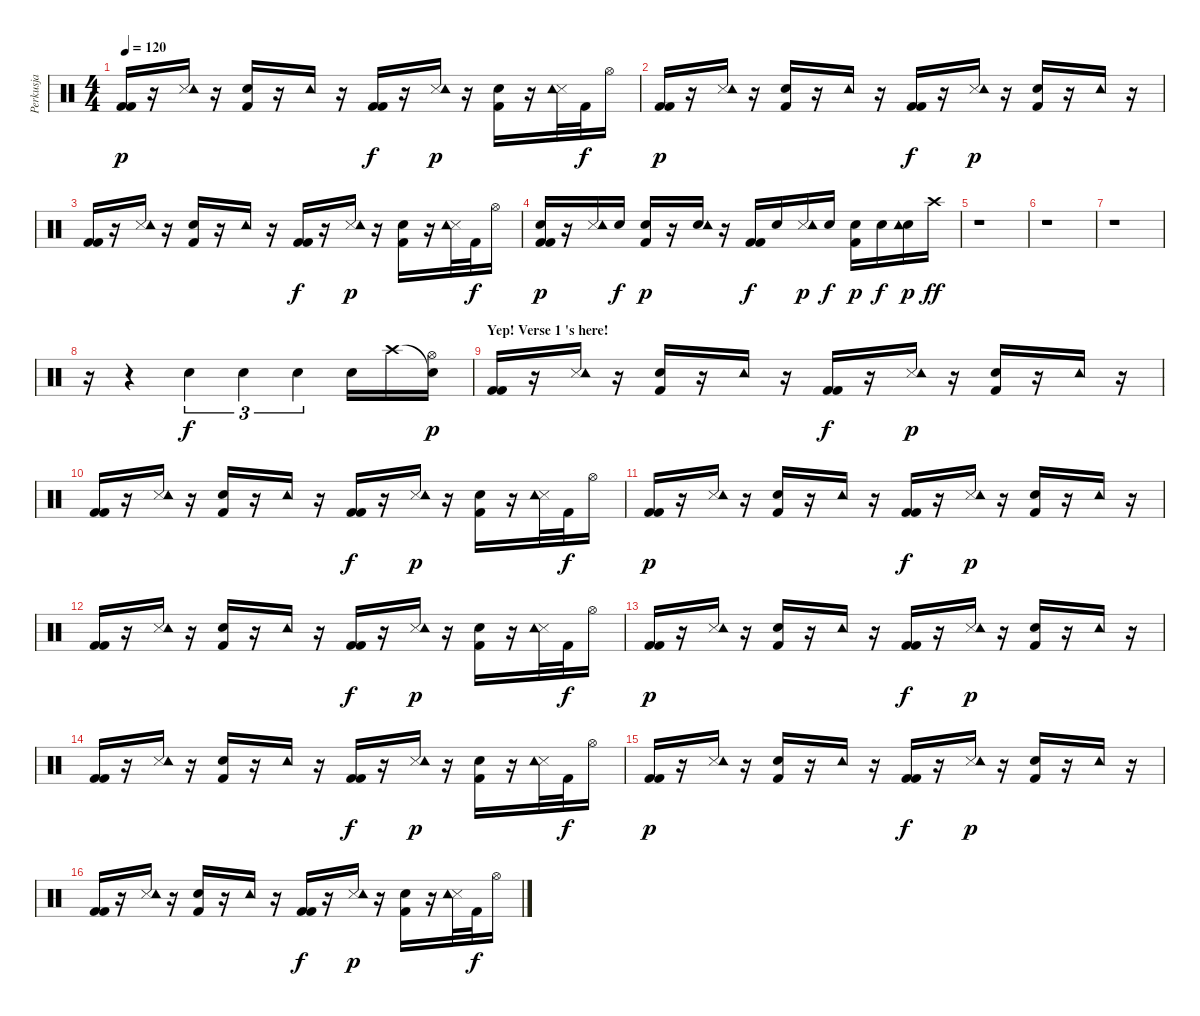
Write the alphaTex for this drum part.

\track ("Perkusja" "Perkusja") {instrument percussion}
\staff {score}
\articulation defaults
\ts (4 4)
\tempo 120
\clef neutral
\ks c
("Kick (hit) 2" "Kick (hit) 2").16{dy p} r.16 ("Snare (side stick) 3" "Tambourine (hit)").16 r.16 ("Electric Snare (hit)" "Kick (hit) 2").16 r.16 "Tambourine (hit)".16 r.16 ("Kick (hit) 2" "Kick (hit) 2").16{dy f} r.16 ("Snare (side stick) 3" "Tambourine (hit)").16{dy p} r.16 ("Electric Snare (hit)" "Kick (hit) 2").16 r.16 ("Snare (side stick) 3" "Tambourine (hit)").32 "Kick (hit) 2".32{dy f} "Hi-Hat (open)".16 |
("Kick (hit) 2" "Kick (hit) 2").16{dy p} r.16 ("Snare (side stick) 3" "Tambourine (hit)").16 r.16 ("Electric Snare (hit)" "Kick (hit) 2").16 r.16 "Tambourine (hit)".16 r.16 ("Kick (hit) 2" "Kick (hit) 2").16{dy f} r.16 ("Snare (side stick) 3" "Tambourine (hit)").16{dy p} r.16 ("Electric Snare (hit)" "Kick (hit) 2").16 r.16 "Tambourine (hit)".16 r.16 |
("Kick (hit) 2" "Kick (hit) 2").16 r.16 ("Snare (side stick) 3" "Tambourine (hit)").16 r.16 ("Electric Snare (hit)" "Kick (hit) 2").16 r.16 "Tambourine (hit)".16 r.16 ("Kick (hit) 2" "Kick (hit) 2").16{dy f} r.16 ("Snare (side stick) 3" "Tambourine (hit)").16{dy p} r.16 ("Electric Snare (hit)" "Kick (hit) 2").16 r.16 ("Snare (side stick) 3" "Tambourine (hit)").32 "Kick (hit) 2".32{dy f} "Hi-Hat (open)".16 |
("Kick (hit) 2" "Electric Snare (hit)" "Kick (hit) 2").16{dy p} r.16 ("Snare (side stick) 3" "Tambourine (hit)").16 "Electric Snare (hit)".16{dy f} ("Electric Snare (hit)" "Kick (hit) 2").16{dy p} r.16 ("Electric Snare (hit)" "Tambourine (hit)").16 r.16 ("Kick (hit) 2" "Kick (hit) 2").16{dy f} "Electric Snare (hit)".16 ("Snare (side stick) 3" "Tambourine (hit)").16{dy p} "Electric Snare (hit)".16{dy f} ("Electric Snare (hit)" "Kick (hit) 2").16{dy p} "Electric Snare (hit)".16{dy f} ("Electric Snare (hit)" "Tambourine (hit)").16{dy p} "Crash high (hit)".16{dy ff} |
r.1 |
r.1 |
r.1 |
r.16 r.4 "Electric Snare (hit)".4{tu (3 2) dy f} "Electric Snare (hit)".4{tu (3 2)} "Electric Snare (hit)".4{tu (3 2)} "Electric Snare (hit)".16 "Crash high (hit)".16 ("Snare (hit)"{t} "Hi-Hat (open)").16{dy p} |
\section ("" "Yep! Verse 1 's here!")
("Kick (hit) 2" "Kick (hit) 2").16 r.16 ("Snare (side stick) 3" "Tambourine (hit)").16 r.16 ("Electric Snare (hit)" "Kick (hit) 2").16 r.16 "Tambourine (hit)".16 r.16 ("Kick (hit) 2" "Kick (hit) 2").16{dy f} r.16 ("Snare (side stick) 3" "Tambourine (hit)").16{dy p} r.16 ("Electric Snare (hit)" "Kick (hit) 2").16 r.16 "Tambourine (hit)".16 r.16 |
("Kick (hit) 2" "Kick (hit) 2").16 r.16 ("Snare (side stick) 3" "Tambourine (hit)").16 r.16 ("Electric Snare (hit)" "Kick (hit) 2").16 r.16 "Tambourine (hit)".16 r.16 ("Kick (hit) 2" "Kick (hit) 2").16{dy f} r.16 ("Snare (side stick) 3" "Tambourine (hit)").16{dy p} r.16 ("Electric Snare (hit)" "Kick (hit) 2").16 r.16 ("Snare (side stick) 3" "Tambourine (hit)").32 "Kick (hit) 2".32{dy f} "Hi-Hat (open)".16 |
("Kick (hit) 2" "Kick (hit) 2").16{dy p} r.16 ("Snare (side stick) 3" "Tambourine (hit)").16 r.16 ("Electric Snare (hit)" "Kick (hit) 2").16 r.16 "Tambourine (hit)".16 r.16 ("Kick (hit) 2" "Kick (hit) 2").16{dy f} r.16 ("Snare (side stick) 3" "Tambourine (hit)").16{dy p} r.16 ("Electric Snare (hit)" "Kick (hit) 2").16 r.16 "Tambourine (hit)".16 r.16 |
("Kick (hit) 2" "Kick (hit) 2").16 r.16 ("Snare (side stick) 3" "Tambourine (hit)").16 r.16 ("Electric Snare (hit)" "Kick (hit) 2").16 r.16 "Tambourine (hit)".16 r.16 ("Kick (hit) 2" "Kick (hit) 2").16{dy f} r.16 ("Snare (side stick) 3" "Tambourine (hit)").16{dy p} r.16 ("Electric Snare (hit)" "Kick (hit) 2").16 r.16 ("Snare (side stick) 3" "Tambourine (hit)").32 "Kick (hit) 2".32{dy f} "Hi-Hat (open)".16 |
("Kick (hit) 2" "Kick (hit) 2").16{dy p} r.16 ("Snare (side stick) 3" "Tambourine (hit)").16 r.16 ("Electric Snare (hit)" "Kick (hit) 2").16 r.16 "Tambourine (hit)".16 r.16 ("Kick (hit) 2" "Kick (hit) 2").16{dy f} r.16 ("Snare (side stick) 3" "Tambourine (hit)").16{dy p} r.16 ("Electric Snare (hit)" "Kick (hit) 2").16 r.16 "Tambourine (hit)".16 r.16 |
("Kick (hit) 2" "Kick (hit) 2").16 r.16 ("Snare (side stick) 3" "Tambourine (hit)").16 r.16 ("Electric Snare (hit)" "Kick (hit) 2").16 r.16 "Tambourine (hit)".16 r.16 ("Kick (hit) 2" "Kick (hit) 2").16{dy f} r.16 ("Snare (side stick) 3" "Tambourine (hit)").16{dy p} r.16 ("Electric Snare (hit)" "Kick (hit) 2").16 r.16 ("Snare (side stick) 3" "Tambourine (hit)").32 "Kick (hit) 2".32{dy f} "Hi-Hat (open)".16 |
("Kick (hit) 2" "Kick (hit) 2").16{dy p} r.16 ("Snare (side stick) 3" "Tambourine (hit)").16 r.16 ("Electric Snare (hit)" "Kick (hit) 2").16 r.16 "Tambourine (hit)".16 r.16 ("Kick (hit) 2" "Kick (hit) 2").16{dy f} r.16 ("Snare (side stick) 3" "Tambourine (hit)").16{dy p} r.16 ("Electric Snare (hit)" "Kick (hit) 2").16 r.16 "Tambourine (hit)".16 r.16 |
("Kick (hit) 2" "Kick (hit) 2").16 r.16 ("Snare (side stick) 3" "Tambourine (hit)").16 r.16 ("Electric Snare (hit)" "Kick (hit) 2").16 r.16 "Tambourine (hit)".16 r.16 ("Kick (hit) 2" "Kick (hit) 2").16{dy f} r.16 ("Snare (side stick) 3" "Tambourine (hit)").16{dy p} r.16 ("Electric Snare (hit)" "Kick (hit) 2").16 r.16 ("Snare (side stick) 3" "Tambourine (hit)").32 "Kick (hit) 2".32{dy f} "Hi-Hat (open)".16
